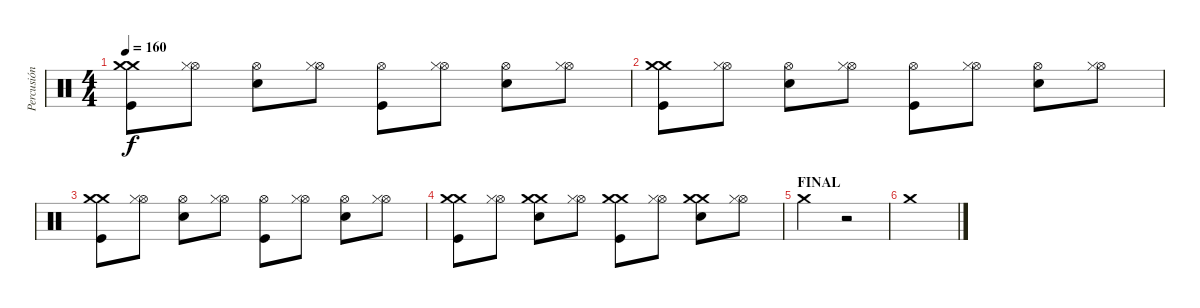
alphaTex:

\track ("Percusión" "Percusión") {instrument percussion}
\staff {score}
\articulation defaults
\ts (4 4)
\tempo 160
\clef neutral
\ks c
("Kick (hit)" "Crash medium (hit)" "Crash medium (hit)").8{dy f} ("Hi-Hat (open)" "Hi-Hat (closed)").8 ("Snare (hit) 2" "Hi-Hat (open)").8 ("Hi-Hat (open)" "Hi-Hat (closed)").8 ("Kick (hit)" "Hi-Hat (open)").8 ("Hi-Hat (open)" "Hi-Hat (closed)").8 ("Snare (hit) 2" "Hi-Hat (open)").8 ("Hi-Hat (open)" "Hi-Hat (closed)").8 |
("Kick (hit)" "Crash medium (hit)" "Crash medium (hit)").8 ("Hi-Hat (open)" "Hi-Hat (closed)").8 ("Snare (hit) 2" "Hi-Hat (open)").8 ("Hi-Hat (open)" "Hi-Hat (closed)").8 ("Kick (hit)" "Hi-Hat (open)").8 ("Hi-Hat (open)" "Hi-Hat (closed)").8 ("Snare (hit) 2" "Hi-Hat (open)").8 ("Hi-Hat (open)" "Hi-Hat (closed)").8 |
("Kick (hit)" "Crash medium (hit)" "Crash medium (hit)").8 ("Hi-Hat (open)" "Hi-Hat (closed)").8 ("Snare (hit) 2" "Hi-Hat (open)").8 ("Hi-Hat (open)" "Hi-Hat (closed)").8 ("Kick (hit)" "Hi-Hat (open)").8 ("Hi-Hat (open)" "Hi-Hat (closed)").8 ("Snare (hit) 2" "Hi-Hat (open)").8 ("Hi-Hat (open)" "Hi-Hat (closed)").8 |
("Kick (hit)" "Crash medium (hit)" "Crash medium (hit)").8 ("Hi-Hat (open)" "Hi-Hat (closed)").8 ("Snare (hit) 2" "Crash medium (hit)" "Crash medium (hit)").8 ("Hi-Hat (open)" "Hi-Hat (closed)").8 ("Kick (hit)" "Crash medium (hit)" "Crash medium (hit)").8 ("Hi-Hat (open)" "Hi-Hat (closed)").8 ("Snare (hit) 2" "Crash medium (hit)" "Crash medium (hit)").8 ("Hi-Hat (open)" "Hi-Hat (closed)").8 |
\section ("" "FINAL")
"Crash medium (hit)".2 r.2 |
"Crash medium (hit)".1
